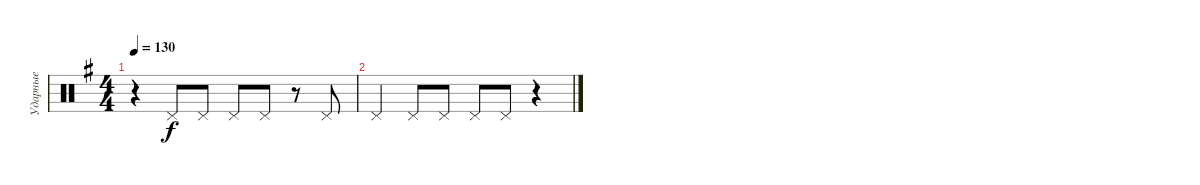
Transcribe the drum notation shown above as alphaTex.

\track ("Ударные" "Ударные") {instrument percussion}
\staff {score}
\articulation defaults
\ts (4 4)
\tempo 130
\clef neutral
\ks g
r.4{dy f} "Pedal Hi-Hat (hit)".8 "Pedal Hi-Hat (hit)".8 "Pedal Hi-Hat (hit)".8 "Pedal Hi-Hat (hit)".8 r.8 "Pedal Hi-Hat (hit)".8 |
"Pedal Hi-Hat (hit)".4 "Pedal Hi-Hat (hit)".8 "Pedal Hi-Hat (hit)".8 "Pedal Hi-Hat (hit)".8 "Pedal Hi-Hat (hit)".8 r.4
